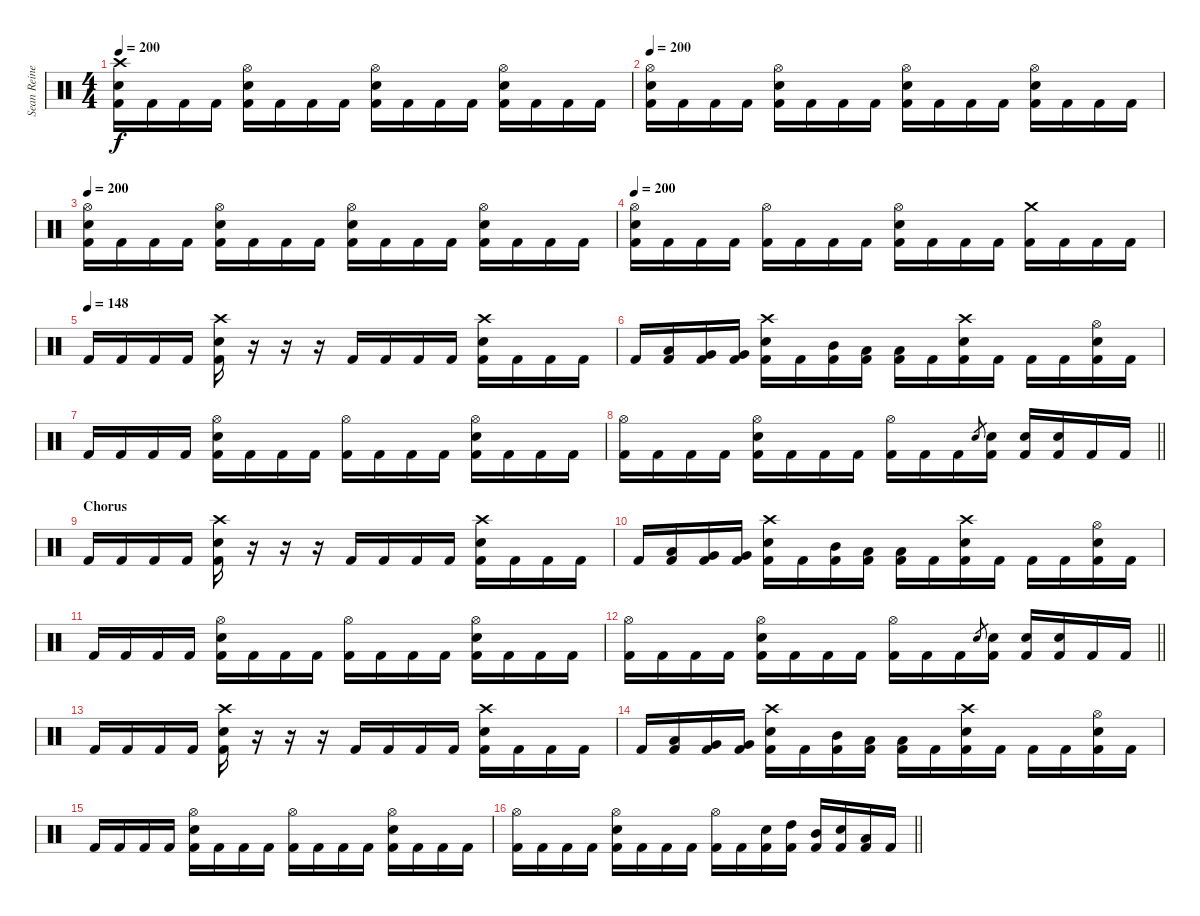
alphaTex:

\track ("Sean Reinert" "Sean Reine") {instrument percussion}
\staff {score}
\articulation defaults
\ts (4 4)
\tempo 200
\clef neutral
\ks c
("Crash high (hit)" "Electric Snare (hit)" "Kick (hit) 2").16{dy f} "Kick (hit) 2".16 "Kick (hit) 2".16 "Kick (hit) 2".16 ("Hi-Hat (open)" "Electric Snare (hit)" "Kick (hit) 2").16 "Kick (hit) 2".16 "Kick (hit) 2".16 "Kick (hit) 2".16 ("Hi-Hat (open)" "Electric Snare (hit)" "Kick (hit) 2").16 "Kick (hit) 2".16 "Kick (hit) 2".16 "Kick (hit) 2".16 ("Hi-Hat (open)" "Electric Snare (hit)" "Kick (hit) 2").16 "Kick (hit) 2".16 "Kick (hit) 2".16 "Kick (hit) 2".16 |
\tempo 200
("Hi-Hat (open)" "Electric Snare (hit)" "Kick (hit) 2").16 "Kick (hit) 2".16 "Kick (hit) 2".16 "Kick (hit) 2".16 ("Hi-Hat (open)" "Electric Snare (hit)" "Kick (hit) 2").16 "Kick (hit) 2".16 "Kick (hit) 2".16 "Kick (hit) 2".16 ("Hi-Hat (open)" "Electric Snare (hit)" "Kick (hit) 2").16 "Kick (hit) 2".16 "Kick (hit) 2".16 "Kick (hit) 2".16 ("Hi-Hat (open)" "Electric Snare (hit)" "Kick (hit) 2").16 "Kick (hit) 2".16 "Kick (hit) 2".16 "Kick (hit) 2".16 |
\tempo 200
("Hi-Hat (open)" "Electric Snare (hit)" "Kick (hit) 2").16 "Kick (hit) 2".16 "Kick (hit) 2".16 "Kick (hit) 2".16 ("Hi-Hat (open)" "Electric Snare (hit)" "Kick (hit) 2").16 "Kick (hit) 2".16 "Kick (hit) 2".16 "Kick (hit) 2".16 ("Hi-Hat (open)" "Electric Snare (hit)" "Kick (hit) 2").16 "Kick (hit) 2".16 "Kick (hit) 2".16 "Kick (hit) 2".16 ("Hi-Hat (open)" "Electric Snare (hit)" "Kick (hit) 2").16 "Kick (hit) 2".16 "Kick (hit) 2".16 "Kick (hit) 2".16 |
\tempo 200
("Hi-Hat (open)" "Electric Snare (hit)" "Kick (hit) 2").16 "Kick (hit) 2".16 "Kick (hit) 2".16 "Kick (hit) 2".16 ("Hi-Hat (open)" "Kick (hit) 2").16 "Kick (hit) 2".16 "Kick (hit) 2".16 "Kick (hit) 2".16 ("Hi-Hat (open)" "Electric Snare (hit)" "Kick (hit) 2").16 "Kick (hit) 2".16 "Kick (hit) 2".16 "Kick (hit) 2".16 ("Crash medium (hit)" "Kick (hit) 2").16 "Kick (hit) 2".16 "Kick (hit) 2".16 "Kick (hit) 2".16 |
\tempo (148)
"Kick (hit) 2".16 "Kick (hit) 2".16 "Kick (hit) 2".16 "Kick (hit) 2".16 ("Crash high (hit)" "Electric Snare (hit)" "Kick (hit) 2").16 r.16 r.16 r.16 "Kick (hit) 2".16 "Kick (hit) 2".16 "Kick (hit) 2".16 "Kick (hit) 2".16 ("Crash high (hit)" "Electric Snare (hit)" "Kick (hit) 2").16 "Kick (hit) 2".16 "Kick (hit) 2".16 "Kick (hit) 2".16 |
"Kick (hit) 2".16 ("Low Tom (hit)" "Kick (hit) 2").16 ("Very Low Tom (hit)" "Kick (hit) 2").16 ("Very Low Tom (hit)" "Kick (hit) 2").16 ("Crash high (hit)" "Electric Snare (hit)" "Kick (hit) 2").16 "Kick (hit) 2".16 ("Mid Tom (hit)" "Kick (hit) 2").16 ("Low Tom (hit)" "Kick (hit) 2").16 ("Low Tom (hit)" "Kick (hit) 2").16 "Kick (hit) 2".16 ("Crash high (hit)" "Electric Snare (hit)" "Kick (hit) 2").16 "Kick (hit) 2".16 "Kick (hit) 2".16 "Kick (hit) 2".16 ("Hi-Hat (open)" "Electric Snare (hit)" "Kick (hit) 2").16 "Kick (hit) 2".16 |
"Kick (hit) 2".16 "Kick (hit) 2".16 "Kick (hit) 2".16 "Kick (hit) 2".16 ("Hi-Hat (open)" "Electric Snare (hit)" "Kick (hit) 2").16 "Kick (hit) 2".16 "Kick (hit) 2".16 "Kick (hit) 2".16 ("Hi-Hat (open)" "Kick (hit) 2").16 "Kick (hit) 2".16 "Kick (hit) 2".16 "Kick (hit) 2".16 ("Hi-Hat (open)" "Electric Snare (hit)" "Kick (hit) 2").16 "Kick (hit) 2".16 "Kick (hit) 2".16 "Kick (hit) 2".16 |
\barLineRight lightlight
("Hi-Hat (open)" "Kick (hit) 2").16 "Kick (hit) 2".16 "Kick (hit) 2".16 "Kick (hit) 2".16 ("Hi-Hat (open)" "Electric Snare (hit)" "Kick (hit) 2").16 "Kick (hit) 2".16 "Kick (hit) 2".16 "Kick (hit) 2".16 ("Hi-Hat (open)" "Kick (hit) 2").16 "Kick (hit) 2".16 "Kick (hit) 2".16 "Electric Snare (hit)".8{gr} ("Electric Snare (hit)" "Kick (hit) 2").16 ("Electric Snare (hit)" "Kick (hit) 2").16 ("Electric Snare (hit)" "Kick (hit) 2").16 "Kick (hit) 2".16 "Kick (hit) 2".16 |
\section ("" "Chorus")
"Kick (hit) 2".16 "Kick (hit) 2".16 "Kick (hit) 2".16 "Kick (hit) 2".16 ("Crash high (hit)" "Electric Snare (hit)" "Kick (hit) 2").16 r.16 r.16 r.16 "Kick (hit) 2".16 "Kick (hit) 2".16 "Kick (hit) 2".16 "Kick (hit) 2".16 ("Crash high (hit)" "Electric Snare (hit)" "Kick (hit) 2").16 "Kick (hit) 2".16 "Kick (hit) 2".16 "Kick (hit) 2".16 |
"Kick (hit) 2".16 ("Low Tom (hit)" "Kick (hit) 2").16 ("Very Low Tom (hit)" "Kick (hit) 2").16 ("Very Low Tom (hit)" "Kick (hit) 2").16 ("Crash high (hit)" "Electric Snare (hit)" "Kick (hit) 2").16 "Kick (hit) 2".16 ("Mid Tom (hit)" "Kick (hit) 2").16 ("Low Tom (hit)" "Kick (hit) 2").16 ("Low Tom (hit)" "Kick (hit) 2").16 "Kick (hit) 2".16 ("Crash high (hit)" "Electric Snare (hit)" "Kick (hit) 2").16 "Kick (hit) 2".16 "Kick (hit) 2".16 "Kick (hit) 2".16 ("Hi-Hat (open)" "Electric Snare (hit)" "Kick (hit) 2").16 "Kick (hit) 2".16 |
"Kick (hit) 2".16 "Kick (hit) 2".16 "Kick (hit) 2".16 "Kick (hit) 2".16 ("Hi-Hat (open)" "Electric Snare (hit)" "Kick (hit) 2").16 "Kick (hit) 2".16 "Kick (hit) 2".16 "Kick (hit) 2".16 ("Hi-Hat (open)" "Kick (hit) 2").16 "Kick (hit) 2".16 "Kick (hit) 2".16 "Kick (hit) 2".16 ("Hi-Hat (open)" "Electric Snare (hit)" "Kick (hit) 2").16 "Kick (hit) 2".16 "Kick (hit) 2".16 "Kick (hit) 2".16 |
\barLineRight lightlight
("Hi-Hat (open)" "Kick (hit) 2").16 "Kick (hit) 2".16 "Kick (hit) 2".16 "Kick (hit) 2".16 ("Hi-Hat (open)" "Electric Snare (hit)" "Kick (hit) 2").16 "Kick (hit) 2".16 "Kick (hit) 2".16 "Kick (hit) 2".16 ("Hi-Hat (open)" "Kick (hit) 2").16 "Kick (hit) 2".16 "Kick (hit) 2".16 "Electric Snare (hit)".8{gr} ("Electric Snare (hit)" "Kick (hit) 2").16 ("Electric Snare (hit)" "Kick (hit) 2").16 ("Electric Snare (hit)" "Kick (hit) 2").16 "Kick (hit) 2".16 "Kick (hit) 2".16 |
"Kick (hit) 2".16 "Kick (hit) 2".16 "Kick (hit) 2".16 "Kick (hit) 2".16 ("Crash high (hit)" "Electric Snare (hit)" "Kick (hit) 2").16 r.16 r.16 r.16 "Kick (hit) 2".16 "Kick (hit) 2".16 "Kick (hit) 2".16 "Kick (hit) 2".16 ("Crash high (hit)" "Electric Snare (hit)" "Kick (hit) 2").16 "Kick (hit) 2".16 "Kick (hit) 2".16 "Kick (hit) 2".16 |
"Kick (hit) 2".16 ("Low Tom (hit)" "Kick (hit) 2").16 ("Very Low Tom (hit)" "Kick (hit) 2").16 ("Very Low Tom (hit)" "Kick (hit) 2").16 ("Crash high (hit)" "Electric Snare (hit)" "Kick (hit) 2").16 "Kick (hit) 2".16 ("Mid Tom (hit)" "Kick (hit) 2").16 ("Low Tom (hit)" "Kick (hit) 2").16 ("Low Tom (hit)" "Kick (hit) 2").16 "Kick (hit) 2".16 ("Crash high (hit)" "Electric Snare (hit)" "Kick (hit) 2").16 "Kick (hit) 2".16 "Kick (hit) 2".16 "Kick (hit) 2".16 ("Hi-Hat (open)" "Electric Snare (hit)" "Kick (hit) 2").16 "Kick (hit) 2".16 |
"Kick (hit) 2".16 "Kick (hit) 2".16 "Kick (hit) 2".16 "Kick (hit) 2".16 ("Hi-Hat (open)" "Electric Snare (hit)" "Kick (hit) 2").16 "Kick (hit) 2".16 "Kick (hit) 2".16 "Kick (hit) 2".16 ("Hi-Hat (open)" "Kick (hit) 2").16 "Kick (hit) 2".16 "Kick (hit) 2".16 "Kick (hit) 2".16 ("Hi-Hat (open)" "Electric Snare (hit)" "Kick (hit) 2").16 "Kick (hit) 2".16 "Kick (hit) 2".16 "Kick (hit) 2".16 |
\barLineRight lightlight
("Hi-Hat (open)" "Kick (hit) 2").16 "Kick (hit) 2".16 "Kick (hit) 2".16 "Kick (hit) 2".16 ("Hi-Hat (open)" "Electric Snare (hit)" "Kick (hit) 2").16 "Kick (hit) 2".16 "Kick (hit) 2".16 "Kick (hit) 2".16 ("Hi-Hat (open)" "Kick (hit) 2").16 "Kick (hit) 2".16 ("Electric Snare (hit)" "Kick (hit) 2").16 ("High Tom (hit)" "Kick (hit) 2").16 ("Mid Tom (hit)" "Kick (hit) 2").16 ("Electric Snare (hit)" "Kick (hit) 2").16 ("Low Tom (hit)" "Kick (hit) 2").16 "Kick (hit) 2".16
